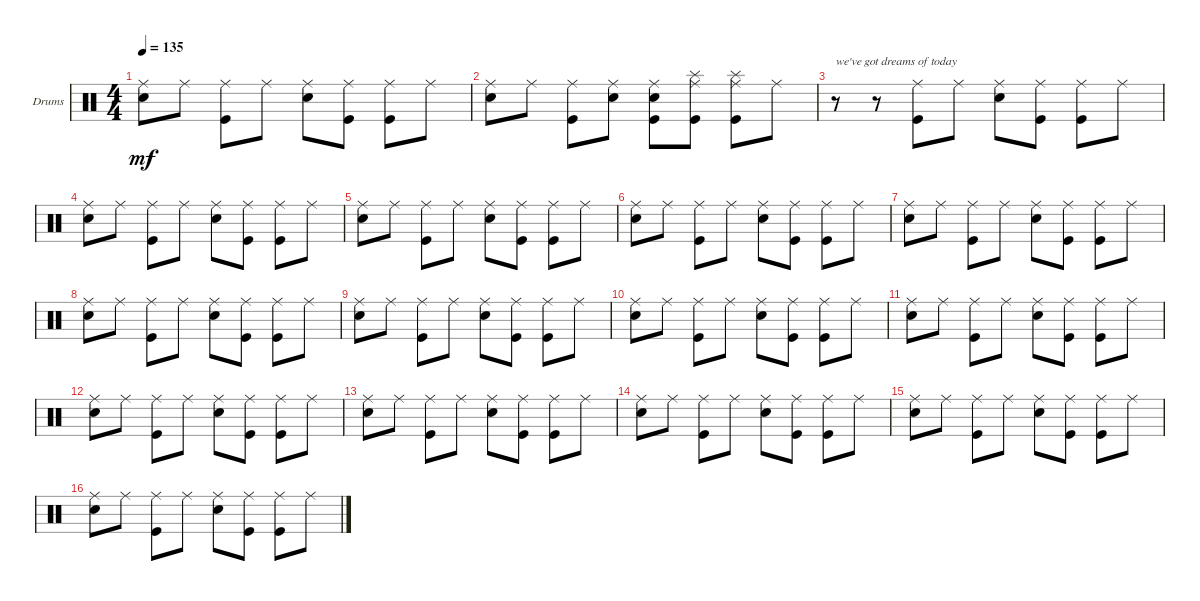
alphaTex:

\bracketExtendMode groupsimilarinstruments
\firstSystemTrackNameOrientation horizontal
\otherSystemsTrackNameOrientation horizontal
\track ("Drumkit" "Drums") {instrument percussion}
\staff {score}
\articulation defaults
\ts (4 4)
\tempo 135
\clef neutral
\ks c
("Snare (hit) 2" "Ride (middle)").8{dy mf} "Ride (middle)".8 ("Kick (hit)" "Ride (middle)").8 "Ride (middle)".8 ("Snare (hit) 2" "Ride (middle)").8 ("Kick (hit)" "Ride (middle)").8 ("Kick (hit)" "Ride (middle)").8 "Ride (middle)".8 |
("Snare (hit) 2" "Ride (middle)").8 "Ride (middle)".8 ("Kick (hit)" "Ride (middle)").8 ("Snare (hit) 2" "Ride (middle)").8 ("Snare (hit) 2" "Ride (middle)" "Kick (hit)").8 ("Ride (middle)" "Kick (hit)" "Splash (hit)").8 ("Ride (middle)" "Kick (hit)" "Splash (hit)").8 "Ride (middle)".8 |
r.8{txt "we've got dreams of today"} r.8 ("Kick (hit)" "Ride (middle)").8 "Ride (middle)".8 ("Snare (hit) 2" "Ride (middle)").8 ("Kick (hit)" "Ride (middle)").8 ("Kick (hit)" "Ride (middle)").8 "Ride (middle)".8 |
("Snare (hit) 2" "Ride (middle)").8 "Ride (middle)".8 ("Kick (hit)" "Ride (middle)").8 "Ride (middle)".8 ("Snare (hit) 2" "Ride (middle)").8 ("Kick (hit)" "Ride (middle)").8 ("Kick (hit)" "Ride (middle)").8 "Ride (middle)".8 |
("Snare (hit) 2" "Ride (middle)").8 "Ride (middle)".8 ("Kick (hit)" "Ride (middle)").8 "Ride (middle)".8 ("Snare (hit) 2" "Ride (middle)").8 ("Kick (hit)" "Ride (middle)").8 ("Kick (hit)" "Ride (middle)").8 "Ride (middle)".8 |
("Snare (hit) 2" "Ride (middle)").8 "Ride (middle)".8 ("Kick (hit)" "Ride (middle)").8 "Ride (middle)".8 ("Snare (hit) 2" "Ride (middle)").8 ("Kick (hit)" "Ride (middle)").8 ("Kick (hit)" "Ride (middle)").8 "Ride (middle)".8 |
("Snare (hit) 2" "Ride (middle)").8 "Ride (middle)".8 ("Kick (hit)" "Ride (middle)").8 "Ride (middle)".8 ("Snare (hit) 2" "Ride (middle)").8 ("Kick (hit)" "Ride (middle)").8 ("Kick (hit)" "Ride (middle)").8 "Ride (middle)".8 |
("Snare (hit) 2" "Ride (middle)").8 "Ride (middle)".8 ("Kick (hit)" "Ride (middle)").8 "Ride (middle)".8 ("Snare (hit) 2" "Ride (middle)").8 ("Kick (hit)" "Ride (middle)").8 ("Kick (hit)" "Ride (middle)").8 "Ride (middle)".8 |
("Snare (hit) 2" "Ride (middle)").8 "Ride (middle)".8 ("Kick (hit)" "Ride (middle)").8 "Ride (middle)".8 ("Snare (hit) 2" "Ride (middle)").8 ("Kick (hit)" "Ride (middle)").8 ("Kick (hit)" "Ride (middle)").8 "Ride (middle)".8 |
("Snare (hit) 2" "Ride (middle)").8 "Ride (middle)".8 ("Kick (hit)" "Ride (middle)").8 "Ride (middle)".8 ("Snare (hit) 2" "Ride (middle)").8 ("Kick (hit)" "Ride (middle)").8 ("Kick (hit)" "Ride (middle)").8 "Ride (middle)".8 |
("Snare (hit) 2" "Ride (middle)").8 "Ride (middle)".8 ("Kick (hit)" "Ride (middle)").8 "Ride (middle)".8 ("Snare (hit) 2" "Ride (middle)").8 ("Kick (hit)" "Ride (middle)").8 ("Kick (hit)" "Ride (middle)").8 "Ride (middle)".8 |
("Snare (hit) 2" "Ride (middle)").8 "Ride (middle)".8 ("Kick (hit)" "Ride (middle)").8 "Ride (middle)".8 ("Snare (hit) 2" "Ride (middle)").8 ("Kick (hit)" "Ride (middle)").8 ("Kick (hit)" "Ride (middle)").8 "Ride (middle)".8 |
("Snare (hit) 2" "Ride (middle)").8 "Ride (middle)".8 ("Kick (hit)" "Ride (middle)").8 "Ride (middle)".8 ("Snare (hit) 2" "Ride (middle)").8 ("Kick (hit)" "Ride (middle)").8 ("Kick (hit)" "Ride (middle)").8 "Ride (middle)".8 |
("Snare (hit) 2" "Ride (middle)").8 "Ride (middle)".8 ("Kick (hit)" "Ride (middle)").8 "Ride (middle)".8 ("Snare (hit) 2" "Ride (middle)").8 ("Kick (hit)" "Ride (middle)").8 ("Kick (hit)" "Ride (middle)").8 "Ride (middle)".8 |
("Snare (hit) 2" "Ride (middle)").8 "Ride (middle)".8 ("Kick (hit)" "Ride (middle)").8 "Ride (middle)".8 ("Snare (hit) 2" "Ride (middle)").8 ("Kick (hit)" "Ride (middle)").8 ("Kick (hit)" "Ride (middle)").8 "Ride (middle)".8 |
("Snare (hit) 2" "Ride (middle)").8 "Ride (middle)".8 ("Kick (hit)" "Ride (middle)").8 "Ride (middle)".8 ("Snare (hit) 2" "Ride (middle)").8 ("Kick (hit)" "Ride (middle)").8 ("Kick (hit)" "Ride (middle)").8 "Ride (middle)".8
